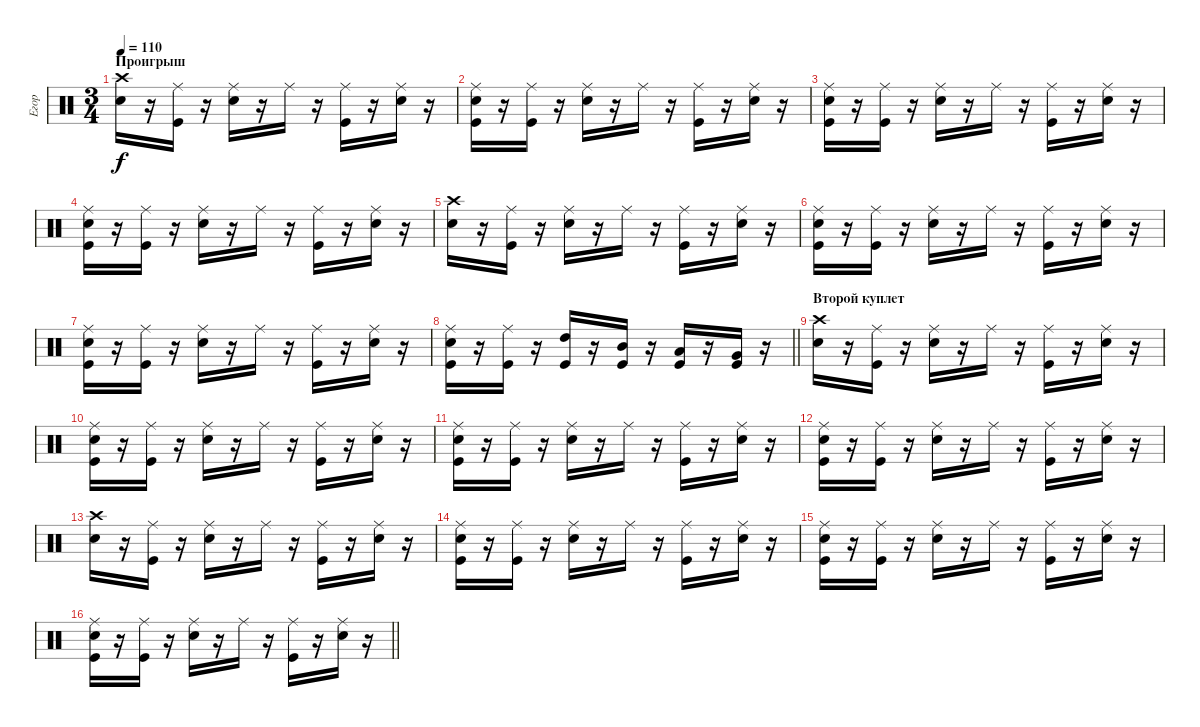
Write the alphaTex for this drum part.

\track ("Егор" "Егор") {instrument percussion}
\staff {score}
\articulation defaults
\ts (3 4)
\section ("" "Проигрыш")
\tempo 110
\clef neutral
\ks c
("Snare (hit) 2" "Crash high (hit)").16{dy f} r.16 ("Ride (middle)" "Kick (hit)").16 r.16 ("Snare (hit) 2" "Ride (middle)").16 r.16 "Ride (middle)".16 r.16 ("Ride (middle)" "Kick (hit)").16 r.16 ("Ride (middle)" "Snare (hit) 2").16 r.16 |
("Kick (hit)" "Ride (middle)" "Snare (hit) 2").16 r.16 ("Ride (middle)" "Kick (hit)").16 r.16 ("Snare (hit) 2" "Ride (middle)").16 r.16 "Ride (middle)".16 r.16 ("Ride (middle)" "Kick (hit)").16 r.16 ("Ride (middle)" "Snare (hit) 2").16 r.16 |
("Kick (hit)" "Ride (middle)" "Snare (hit) 2").16 r.16 ("Ride (middle)" "Kick (hit)").16 r.16 ("Snare (hit) 2" "Ride (middle)").16 r.16 "Ride (middle)".16 r.16 ("Ride (middle)" "Kick (hit)").16 r.16 ("Ride (middle)" "Snare (hit) 2").16 r.16 |
("Kick (hit)" "Ride (middle)" "Snare (hit) 2").16 r.16 ("Ride (middle)" "Kick (hit)").16 r.16 ("Snare (hit) 2" "Ride (middle)").16 r.16 "Ride (middle)".16 r.16 ("Ride (middle)" "Kick (hit)").16 r.16 ("Ride (middle)" "Snare (hit) 2").16 r.16 |
("Snare (hit) 2" "Crash high (hit)").16 r.16 ("Ride (middle)" "Kick (hit)").16 r.16 ("Snare (hit) 2" "Ride (middle)").16 r.16 "Ride (middle)".16 r.16 ("Ride (middle)" "Kick (hit)").16 r.16 ("Ride (middle)" "Snare (hit) 2").16 r.16 |
("Kick (hit)" "Ride (middle)" "Snare (hit) 2").16 r.16 ("Ride (middle)" "Kick (hit)").16 r.16 ("Snare (hit) 2" "Ride (middle)").16 r.16 "Ride (middle)".16 r.16 ("Ride (middle)" "Kick (hit)").16 r.16 ("Ride (middle)" "Snare (hit) 2").16 r.16 |
("Kick (hit)" "Ride (middle)" "Snare (hit) 2").16 r.16 ("Ride (middle)" "Kick (hit)").16 r.16 ("Snare (hit) 2" "Ride (middle)").16 r.16 "Ride (middle)".16 r.16 ("Ride (middle)" "Kick (hit)").16 r.16 ("Ride (middle)" "Snare (hit) 2").16 r.16 |
\barLineRight lightlight
("Kick (hit)" "Ride (middle)" "Snare (hit) 2").16 r.16 ("Ride (middle)" "Kick (hit)").16 r.16 ("High Tom (hit)" "Kick (hit)").16 r.16 ("Mid Tom (hit)" "Kick (hit)").16 r.16 ("Low Tom (hit)" "Kick (hit)").16 r.16 ("Very Low Tom (hit)" "Kick (hit)").16 r.16 |
\section ("" "Второй куплет")
("Snare (hit) 2" "Crash high (hit)").16 r.16 ("Ride (middle)" "Kick (hit)").16 r.16 ("Snare (hit) 2" "Ride (middle)").16 r.16 "Ride (middle)".16 r.16 ("Ride (middle)" "Kick (hit)").16 r.16 ("Ride (middle)" "Snare (hit) 2").16 r.16 |
("Kick (hit)" "Ride (middle)" "Snare (hit) 2").16 r.16 ("Ride (middle)" "Kick (hit)").16 r.16 ("Snare (hit) 2" "Ride (middle)").16 r.16 "Ride (middle)".16 r.16 ("Ride (middle)" "Kick (hit)").16 r.16 ("Ride (middle)" "Snare (hit) 2").16 r.16 |
("Kick (hit)" "Ride (middle)" "Snare (hit) 2").16 r.16 ("Ride (middle)" "Kick (hit)").16 r.16 ("Snare (hit) 2" "Ride (middle)").16 r.16 "Ride (middle)".16 r.16 ("Ride (middle)" "Kick (hit)").16 r.16 ("Ride (middle)" "Snare (hit) 2").16 r.16 |
("Kick (hit)" "Ride (middle)" "Snare (hit) 2").16 r.16 ("Ride (middle)" "Kick (hit)").16 r.16 ("Snare (hit) 2" "Ride (middle)").16 r.16 "Ride (middle)".16 r.16 ("Ride (middle)" "Kick (hit)").16 r.16 ("Ride (middle)" "Snare (hit) 2").16 r.16 |
("Snare (hit) 2" "Crash high (hit)").16 r.16 ("Ride (middle)" "Kick (hit)").16 r.16 ("Snare (hit) 2" "Ride (middle)").16 r.16 "Ride (middle)".16 r.16 ("Ride (middle)" "Kick (hit)").16 r.16 ("Ride (middle)" "Snare (hit) 2").16 r.16 |
("Kick (hit)" "Ride (middle)" "Snare (hit) 2").16 r.16 ("Ride (middle)" "Kick (hit)").16 r.16 ("Snare (hit) 2" "Ride (middle)").16 r.16 "Ride (middle)".16 r.16 ("Ride (middle)" "Kick (hit)").16 r.16 ("Ride (middle)" "Snare (hit) 2").16 r.16 |
("Kick (hit)" "Ride (middle)" "Snare (hit) 2").16 r.16 ("Ride (middle)" "Kick (hit)").16 r.16 ("Snare (hit) 2" "Ride (middle)").16 r.16 "Ride (middle)".16 r.16 ("Ride (middle)" "Kick (hit)").16 r.16 ("Ride (middle)" "Snare (hit) 2").16 r.16 |
\barLineRight lightlight
("Kick (hit)" "Ride (middle)" "Snare (hit) 2").16 r.16 ("Ride (middle)" "Kick (hit)").16 r.16 ("Snare (hit) 2" "Ride (middle)").16 r.16 "Ride (middle)".16 r.16 ("Ride (middle)" "Kick (hit)").16 r.16 ("Ride (middle)" "Snare (hit) 2").16 r.16
